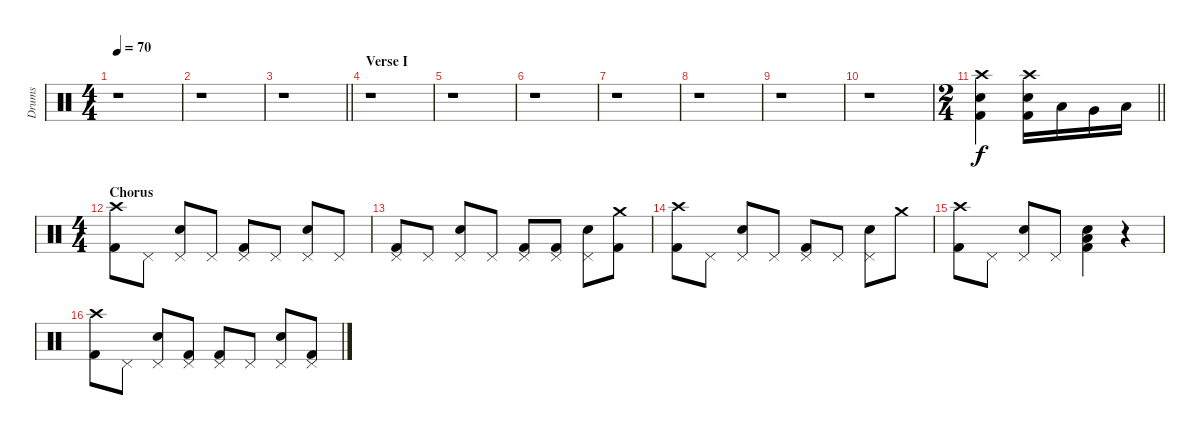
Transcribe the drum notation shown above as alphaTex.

\track ("Drums" "Drums") {instrument percussion}
\staff {score}
\articulation defaults
\ts (4 4)
\tempo 70
\clef neutral
\ks c
r.1{dy f} |
r.1 |
\barLineRight lightlight
r.1 |
\section ("" "Verse I")
r.1 |
r.1 |
r.1 |
r.1 |
r.1 |
r.1 |
r.1 |
\ts (2 4)
\barLineRight lightlight
("Crash high (hit)" "Snare (hit) 2" "Kick (hit) 2").4 ("Crash high (hit)" "Snare (hit) 2" "Kick (hit) 2").16 "Low Tom (hit)".16 "Very Low Tom (hit)".16 "Low Floor Tom (hit)".16 |
\ts (4 4)
\section ("" "Chorus")
("Crash high (hit)" "Kick (hit) 2").8 "Pedal Hi-Hat (hit)".8 ("Pedal Hi-Hat (hit)" "Snare (hit) 2").8 "Pedal Hi-Hat (hit)".8 ("Pedal Hi-Hat (hit)" "Kick (hit) 2").8 "Pedal Hi-Hat (hit)".8 ("Pedal Hi-Hat (hit)" "Snare (hit) 2").8 "Pedal Hi-Hat (hit)".8 |
("Pedal Hi-Hat (hit)" "Kick (hit) 2").8 "Pedal Hi-Hat (hit)".8 ("Pedal Hi-Hat (hit)" "Snare (hit) 2").8 "Pedal Hi-Hat (hit)".8 ("Pedal Hi-Hat (hit)" "Kick (hit) 2").8 ("Pedal Hi-Hat (hit)" "Kick (hit) 2").8 ("Pedal Hi-Hat (hit)" "Snare (hit) 2").8 ("Crash medium (hit)" "Kick (hit) 2").8 |
("Crash high (hit)" "Kick (hit) 2").8 "Pedal Hi-Hat (hit)".8 ("Pedal Hi-Hat (hit)" "Snare (hit) 2").8 "Pedal Hi-Hat (hit)".8 ("Pedal Hi-Hat (hit)" "Kick (hit) 2").8 "Pedal Hi-Hat (hit)".8 ("Pedal Hi-Hat (hit)" "Snare (hit) 2").8 "Crash medium (hit)".8 |
("Crash high (hit)" "Kick (hit) 2").8 "Pedal Hi-Hat (hit)".8 ("Pedal Hi-Hat (hit)" "Snare (hit) 2").8 "Pedal Hi-Hat (hit)".8 ("Snare (hit) 2" "Low Floor Tom (hit)" "Kick (hit) 2").4 r.4 |
("Crash high (hit)" "Kick (hit) 2").8 "Pedal Hi-Hat (hit)".8 ("Pedal Hi-Hat (hit)" "Snare (hit) 2").8 ("Pedal Hi-Hat (hit)" "Kick (hit) 2").8 ("Pedal Hi-Hat (hit)" "Kick (hit) 2").8 "Pedal Hi-Hat (hit)".8 ("Pedal Hi-Hat (hit)" "Snare (hit) 2").8 ("Pedal Hi-Hat (hit)" "Kick (hit) 2").8
